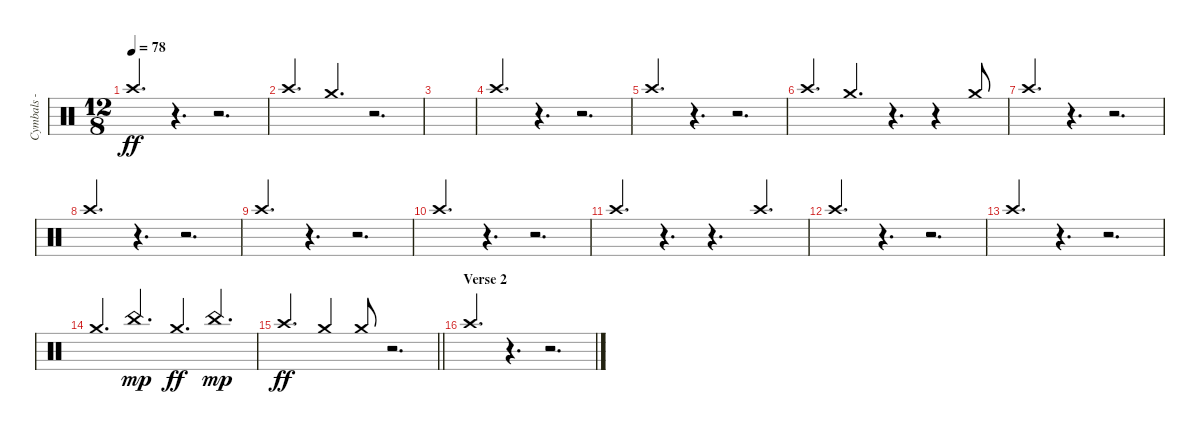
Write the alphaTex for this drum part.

\track ("Cymbals - crash" "Cymbals - ") {instrument percussion}
\staff {score}
\articulation defaults
\ts (12 8)
\tempo 78
\clef neutral
\ks c "Crash high (hit)".4{d dy ff beam Up}
r.4{d} r.2{d} |
"Crash high (hit)".4{d beam Up} "Crash medium (hit)".4{d beam Up} r.2{d} |
|
"Crash high (hit)".4{d beam Up} r.4{d} r.2{d} |
"Crash high (hit)".4{d beam Up} r.4{d} r.2{d} |
"Crash high (hit)".4{d beam Up} "Crash medium (hit)".4{d beam Up} r.4{d} r.4 "Crash medium (hit)".8{beam Up} |
"Crash high (hit)".4{d beam Up} r.4{d} r.2{d} |
"Crash high (hit)".4{d beam Up} r.4{d} r.2{d} |
"Crash high (hit)".4{d beam Up} r.4{d} r.2{d} |
"Crash high (hit)".4{d beam Up} r.4{d} r.2{d} |
"Crash high (hit)".4{d beam Up} r.4{d} r.4{d} "Crash high (hit)".4{d beam Up} |
"Crash high (hit)".4{d beam Up} r.4{d} r.2{d} |
"Crash high (hit)".4{d beam Up} r.4{d} r.2{d} |
"Crash medium (hit)".4{d beam Up} "China (hit)".4{d dy mp balance 4 beam Up} "Crash medium (hit)".4{d dy ff balance 8 beam Up} "China (hit)".4{d dy mp balance 4 beam Up} |
\barLineRight lightlight "Crash high (hit)".4{d dy ff balance 8 beam Up} "Crash medium (hit)".4{beam Up} "Crash medium (hit)".8{beam Up}
r.2{d} |
\section ("" "Verse 2")
"Crash high (hit)".4{d beam Up} r.4{d} r.2{d}
